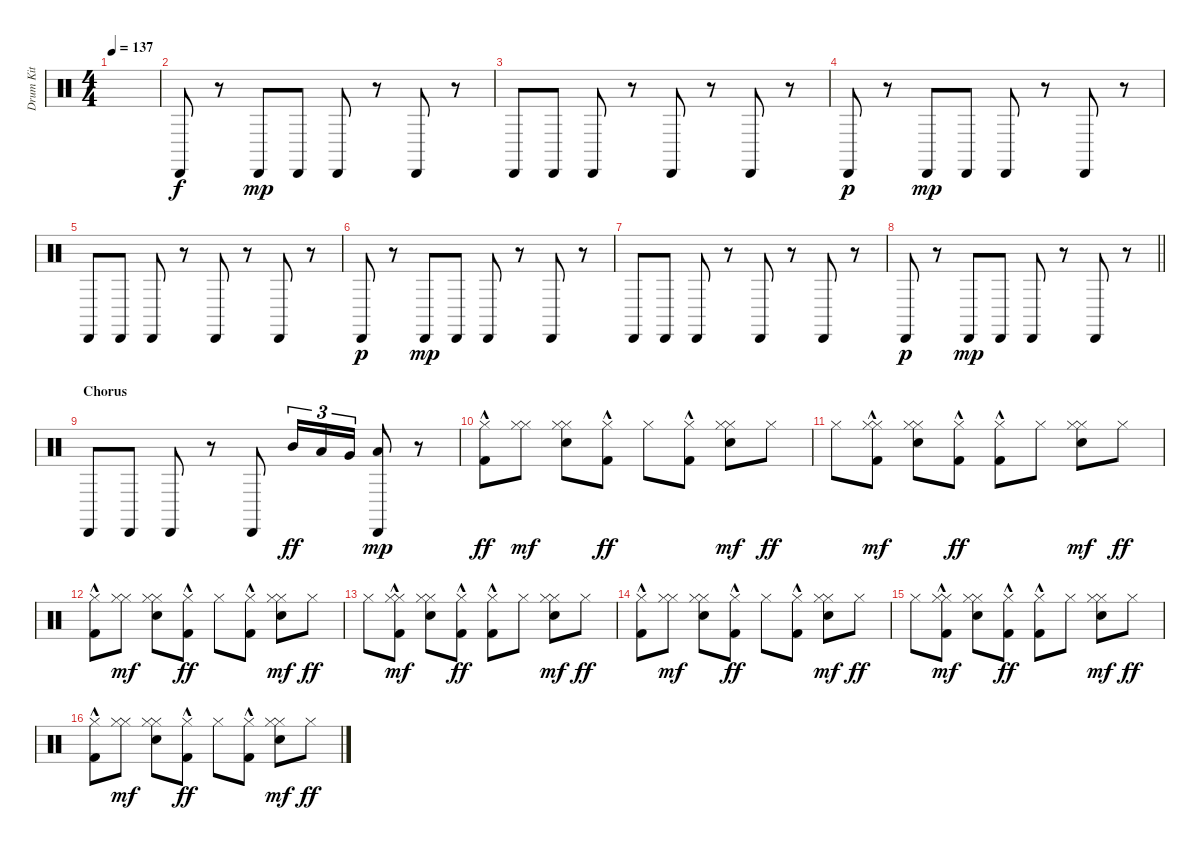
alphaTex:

\track ("Drum Kit" "Drum Kit") {instrument percussion}
\staff {score}
\articulation defaults
\ts (4 4)
\tempo 137
\clef neutral
\ks c
|
"Cabasa (hit)".8 r.8 "Cabasa (hit)".8{dy mp} "Cabasa (hit)".8 "Cabasa (hit)".8 r.8 "Cabasa (hit)".8 r.8 |
"Cabasa (hit)".8 "Cabasa (hit)".8 "Cabasa (hit)".8 r.8 "Cabasa (hit)".8 r.8 "Cabasa (hit)".8 r.8 |
"Cabasa (hit)".8{dy p} r.8 "Cabasa (hit)".8{dy mp} "Cabasa (hit)".8 "Cabasa (hit)".8 r.8 "Cabasa (hit)".8 r.8 |
"Cabasa (hit)".8 "Cabasa (hit)".8 "Cabasa (hit)".8 r.8 "Cabasa (hit)".8 r.8 "Cabasa (hit)".8 r.8 |
"Cabasa (hit)".8{dy p} r.8 "Cabasa (hit)".8{dy mp} "Cabasa (hit)".8 "Cabasa (hit)".8 r.8 "Cabasa (hit)".8 r.8 |
"Cabasa (hit)".8 "Cabasa (hit)".8 "Cabasa (hit)".8 r.8 "Cabasa (hit)".8 r.8 "Cabasa (hit)".8 r.8 |
\barLineRight lightlight "Cabasa (hit)".8{dy p}
r.8 "Cabasa (hit)".8{dy mp} "Cabasa (hit)".8 "Cabasa (hit)".8 r.8 "Cabasa (hit)".8 r.8 |
\section ("" "Chorus")
"Cabasa (hit)".8 "Cabasa (hit)".8 "Cabasa (hit)".8 r.8 "Cabasa (hit)".8 "Mid Tom (hit)".16{tu (3 2) dy ff} "Low Tom (hit)".16{tu (3 2)} "Very Low Tom (hit)".16{tu (3 2)} ("Low Floor Tom (hit)" "Cabasa (hit)").8{dy mp} r.8 |
("Kick (hit) 2"{hac} "Hi-Hat (closed)").8{dy ff} ("Hi-Hat (closed)" "Hi-Hat (closed)").8{dy mf} ("Hand Clap (hit)" "Hi-Hat (closed)" "Hi-Hat (closed)").8 ("Kick (hit) 2"{hac} "Hi-Hat (closed)").8{dy ff} "Hi-Hat (closed)".8 ("Kick (hit) 2"{hac} "Hi-Hat (closed)").8 ("Hand Clap (hit)" "Hi-Hat (closed)" "Hi-Hat (closed)").8{dy mf} "Hi-Hat (closed)".8{dy ff} |
"Hi-Hat (closed)".8 ("Kick (hit) 2"{hac} "Hi-Hat (closed)" "Hi-Hat (closed)").8{dy mf} ("Hand Clap (hit)" "Hi-Hat (closed)" "Hi-Hat (closed)").8 ("Kick (hit) 2"{hac} "Hi-Hat (closed)").8{dy ff} ("Kick (hit) 2"{hac} "Hi-Hat (closed)").8 "Hi-Hat (closed)".8 ("Hand Clap (hit)" "Hi-Hat (closed)" "Hi-Hat (closed)").8{dy mf} "Hi-Hat (closed)".8{dy ff} |
("Kick (hit) 2"{hac} "Hi-Hat (closed)").8 ("Hi-Hat (closed)" "Hi-Hat (closed)").8{dy mf} ("Hand Clap (hit)" "Hi-Hat (closed)" "Hi-Hat (closed)").8 ("Kick (hit) 2"{hac} "Hi-Hat (closed)").8{dy ff} "Hi-Hat (closed)".8 ("Kick (hit) 2"{hac} "Hi-Hat (closed)").8 ("Hand Clap (hit)" "Hi-Hat (closed)" "Hi-Hat (closed)").8{dy mf} "Hi-Hat (closed)".8{dy ff} |
"Hi-Hat (closed)".8 ("Kick (hit) 2"{hac} "Hi-Hat (closed)" "Hi-Hat (closed)").8{dy mf} ("Hand Clap (hit)" "Hi-Hat (closed)" "Hi-Hat (closed)").8 ("Kick (hit) 2"{hac} "Hi-Hat (closed)").8{dy ff} ("Kick (hit) 2"{hac} "Hi-Hat (closed)").8 "Hi-Hat (closed)".8 ("Hand Clap (hit)" "Hi-Hat (closed)" "Hi-Hat (closed)").8{dy mf} "Hi-Hat (closed)".8{dy ff} |
("Kick (hit) 2"{hac} "Hi-Hat (closed)").8 ("Hi-Hat (closed)" "Hi-Hat (closed)").8{dy mf} ("Hand Clap (hit)" "Hi-Hat (closed)" "Hi-Hat (closed)").8 ("Kick (hit) 2"{hac} "Hi-Hat (closed)").8{dy ff} "Hi-Hat (closed)".8 ("Kick (hit) 2"{hac} "Hi-Hat (closed)").8 ("Hand Clap (hit)" "Hi-Hat (closed)" "Hi-Hat (closed)").8{dy mf} "Hi-Hat (closed)".8{dy ff} |
"Hi-Hat (closed)".8 ("Kick (hit) 2"{hac} "Hi-Hat (closed)" "Hi-Hat (closed)").8{dy mf} ("Hand Clap (hit)" "Hi-Hat (closed)" "Hi-Hat (closed)").8 ("Kick (hit) 2"{hac} "Hi-Hat (closed)").8{dy ff} ("Kick (hit) 2"{hac} "Hi-Hat (closed)").8 "Hi-Hat (closed)".8 ("Hand Clap (hit)" "Hi-Hat (closed)" "Hi-Hat (closed)").8{dy mf} "Hi-Hat (closed)".8{dy ff} |
("Kick (hit) 2"{hac} "Hi-Hat (closed)").8 ("Hi-Hat (closed)" "Hi-Hat (closed)").8{dy mf} ("Hand Clap (hit)" "Hi-Hat (closed)" "Hi-Hat (closed)").8 ("Kick (hit) 2"{hac} "Hi-Hat (closed)").8{dy ff} "Hi-Hat (closed)".8 ("Kick (hit) 2"{hac} "Hi-Hat (closed)").8 ("Hand Clap (hit)" "Hi-Hat (closed)" "Hi-Hat (closed)").8{dy mf} "Hi-Hat (closed)".8{dy ff}
